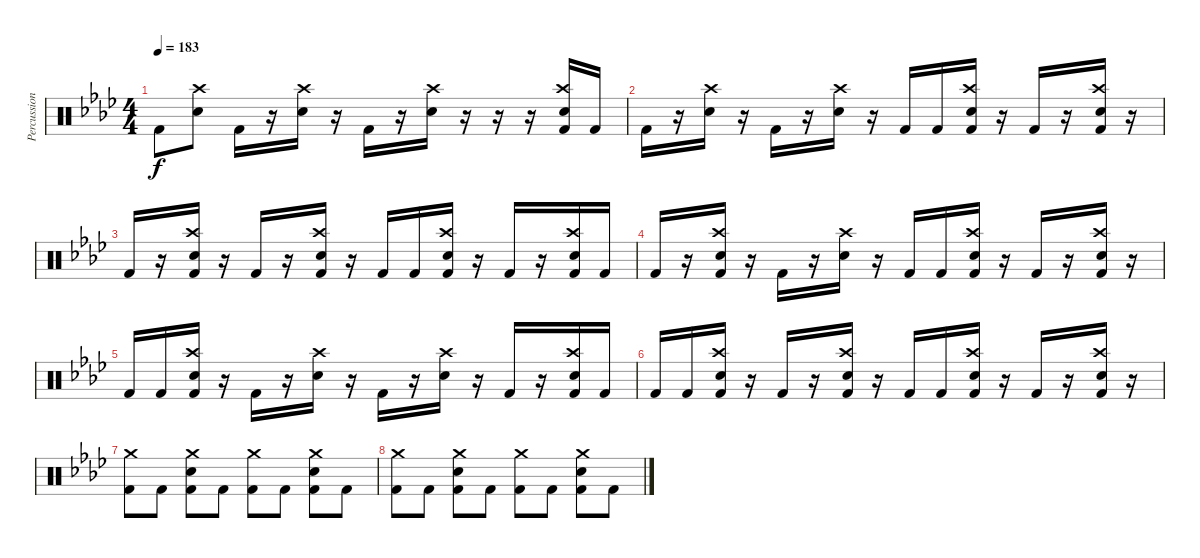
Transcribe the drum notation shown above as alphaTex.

\track ("Percussion" "Percussion") {instrument percussion}
\staff {score}
\articulation defaults
\ts (4 4)
\tempo 183
\clef neutral
\ks fminor "Kick (hit) 2".8{dy f}
("Crash high (hit)" "Electric Snare (hit)").8 "Kick (hit) 2".16 r.16 ("Crash high (hit)" "Electric Snare (hit)").16 r.16 "Kick (hit) 2".16 r.16 ("Crash high (hit)" "Electric Snare (hit)").16 r.16 r.16 r.16 ("Crash high (hit)" "Electric Snare (hit)" "Kick (hit) 2").16 "Kick (hit) 2".16 |
"Kick (hit) 2".16 r.16 ("Crash high (hit)" "Electric Snare (hit)").16 r.16 "Kick (hit) 2".16 r.16 ("Crash high (hit)" "Electric Snare (hit)").16 r.16 "Kick (hit) 2".16 "Kick (hit) 2".16 ("Crash high (hit)" "Electric Snare (hit)" "Kick (hit) 2").16 r.16 "Kick (hit) 2".16 r.16 ("Crash high (hit)" "Electric Snare (hit)" "Kick (hit) 2").16 r.16 |
"Kick (hit) 2".16 r.16 ("Crash high (hit)" "Electric Snare (hit)" "Kick (hit) 2").16 r.16 "Kick (hit) 2".16 r.16 ("Crash high (hit)" "Electric Snare (hit)" "Kick (hit) 2").16 r.16 "Kick (hit) 2".16 "Kick (hit) 2".16 ("Crash high (hit)" "Electric Snare (hit)" "Kick (hit) 2").16 r.16 "Kick (hit) 2".16 r.16 ("Crash high (hit)" "Electric Snare (hit)" "Kick (hit) 2").16 "Kick (hit) 2".16 |
"Kick (hit) 2".16 r.16 ("Crash high (hit)" "Electric Snare (hit)" "Kick (hit) 2").16 r.16 "Kick (hit) 2".16 r.16 ("Crash high (hit)" "Electric Snare (hit)").16 r.16 "Kick (hit) 2".16 "Kick (hit) 2".16 ("Crash high (hit)" "Electric Snare (hit)" "Kick (hit) 2").16 r.16 "Kick (hit) 2".16 r.16 ("Crash high (hit)" "Electric Snare (hit)" "Kick (hit) 2").16 r.16 |
"Kick (hit) 2".16 "Kick (hit) 2".16 ("Crash high (hit)" "Electric Snare (hit)" "Kick (hit) 2").16 r.16 "Kick (hit) 2".16 r.16 ("Crash high (hit)" "Electric Snare (hit)").16 r.16 "Kick (hit) 2".16 r.16 ("Crash high (hit)" "Electric Snare (hit)").16 r.16 "Kick (hit) 2".16 r.16 ("Crash high (hit)" "Electric Snare (hit)" "Kick (hit) 2").16 "Kick (hit) 2".16 |
"Kick (hit) 2".16 "Kick (hit) 2".16 ("Crash high (hit)" "Electric Snare (hit)" "Kick (hit) 2").16 r.16 "Kick (hit) 2".16 r.16 ("Crash high (hit)" "Electric Snare (hit)" "Kick (hit) 2").16 r.16 "Kick (hit) 2".16 "Kick (hit) 2".16 ("Crash high (hit)" "Electric Snare (hit)" "Kick (hit) 2").16 r.16 "Kick (hit) 2".16 r.16 ("Crash high (hit)" "Electric Snare (hit)" "Kick (hit) 2").16 r.16 |
("Crash medium (hit)" "Kick (hit) 2").8 "Kick (hit) 2".8 ("Crash medium (hit)" "Electric Snare (hit)" "Kick (hit) 2").8 "Kick (hit) 2".8 ("Crash medium (hit)" "Kick (hit) 2").8 "Kick (hit) 2".8 ("Crash medium (hit)" "Electric Snare (hit)" "Kick (hit) 2").8 "Kick (hit) 2".8 |
("Crash medium (hit)" "Kick (hit) 2").8 "Kick (hit) 2".8 ("Crash medium (hit)" "Electric Snare (hit)" "Kick (hit) 2").8 "Kick (hit) 2".8 ("Crash medium (hit)" "Kick (hit) 2").8 "Kick (hit) 2".8 ("Crash medium (hit)" "Electric Snare (hit)" "Kick (hit) 2").8 "Kick (hit) 2".8
